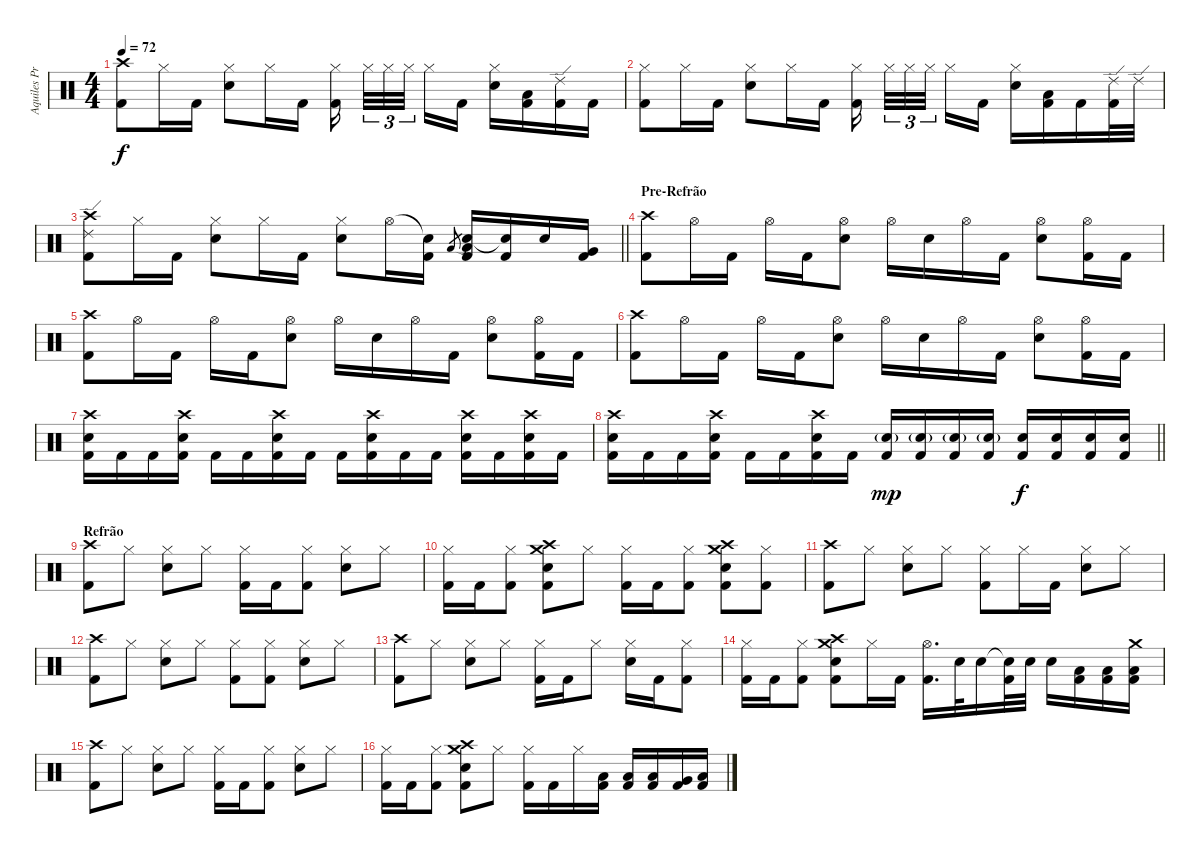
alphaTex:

\track ("Aquiles Priester" "Aquiles Pr") {instrument percussion}
\staff {score}
\articulation defaults
\ts (4 4)
\tempo 72
\clef neutral
\ks c
("Crash high (hit)" "Kick (hit) 2").8{dy f} "Hi-Hat (closed)".16 "Kick (hit) 2".16 ("Hi-Hat (closed)" "Electric Snare (hit)").8 "Hi-Hat (closed)".16 "Kick (hit) 2".16 ("Hi-Hat (closed)" "Kick (hit) 2").16 "Hi-Hat (closed)".32{tu (3 2)} "Hi-Hat (closed)".32{tu (3 2)} "Hi-Hat (closed)".32{tu (3 2)} "Hi-Hat (closed)".16 "Kick (hit) 2".16 ("Hi-Hat (closed)" "Electric Snare (hit)").16 ("Low Tom (hit)" "Kick (hit) 2").16 ("Ride (edge) 2" "Kick (hit) 2").16 "Kick (hit) 2".16 |
("Hi-Hat (closed)" "Kick (hit) 2").8 "Hi-Hat (closed)".16 "Kick (hit) 2".16 ("Hi-Hat (closed)" "Electric Snare (hit)").8 "Hi-Hat (closed)".16 "Kick (hit) 2".16 ("Hi-Hat (closed)" "Kick (hit) 2").16 "Hi-Hat (closed)".32{tu (3 2)} "Hi-Hat (closed)".32{tu (3 2)} "Hi-Hat (closed)".32{tu (3 2)} "Hi-Hat (closed)".16 "Kick (hit) 2".16 ("Hi-Hat (closed)" "Electric Snare (hit)").16 ("Low Tom (hit)" "Kick (hit) 2").16 "Kick (hit) 2".16 ("Ride (edge) 2" "Kick (hit) 2").32 "Ride (edge) 2".32 |
\barLineRight lightlight
("Crash high (hit)" "Ride (edge) 2" "Kick (hit) 2").8 "Hi-Hat (closed)".16 "Kick (hit) 2".16 ("Hi-Hat (closed)" "Electric Snare (hit)").8 "Hi-Hat (closed)".16 "Kick (hit) 2".16 ("Hi-Hat (closed)" "Electric Snare (hit)").8 "Hi-Hat (open)".16 ("Snare (hit)"{t} "Kick (hit) 2").16 "Low Tom (hit)".8{gr} ("Snare (hit)"{t} "Low Tom (hit)" "Kick (hit) 2").16 ("Snare (hit)"{t} "Kick (hit) 2").16 "Electric Snare (hit)".16 ("Very Low Tom (hit)" "Kick (hit) 2").16 |
\section ("" "Pre-Refrão")
("Crash high (hit)" "Kick (hit) 2").8 "Hi-Hat (open)".16 "Kick (hit) 2".16 "Hi-Hat (open)".16 "Kick (hit) 2".16 ("Hi-Hat (open)" "Electric Snare (hit)").8 "Hi-Hat (open)".16 "Electric Snare (hit)".16 "Hi-Hat (open)".16 "Kick (hit) 2".16 ("Hi-Hat (open)" "Electric Snare (hit)").8 ("Hi-Hat (open)" "Kick (hit) 2").16 "Kick (hit) 2".16 |
("Crash high (hit)" "Kick (hit) 2").8 "Hi-Hat (open)".16 "Kick (hit) 2".16 "Hi-Hat (open)".16 "Kick (hit) 2".16 ("Hi-Hat (open)" "Electric Snare (hit)").8 "Hi-Hat (open)".16 "Electric Snare (hit)".16 "Hi-Hat (open)".16 "Kick (hit) 2".16 ("Hi-Hat (open)" "Electric Snare (hit)").8 ("Hi-Hat (open)" "Kick (hit) 2").16 "Kick (hit) 2".16 |
("Crash high (hit)" "Kick (hit) 2").8 "Hi-Hat (open)".16 "Kick (hit) 2".16 "Hi-Hat (open)".16 "Kick (hit) 2".16 ("Hi-Hat (open)" "Electric Snare (hit)").8 "Hi-Hat (open)".16 "Electric Snare (hit)".16 "Hi-Hat (open)".16 "Kick (hit) 2".16 ("Hi-Hat (open)" "Electric Snare (hit)").8 ("Hi-Hat (open)" "Kick (hit) 2").16 "Kick (hit) 2".16 |
("Crash high (hit)" "Electric Snare (hit)" "Kick (hit) 2").16 "Kick (hit) 2".16 "Kick (hit) 2".16 ("Crash high (hit)" "Electric Snare (hit)" "Kick (hit) 2").16 "Kick (hit) 2".16 "Kick (hit) 2".16 ("Crash high (hit)" "Electric Snare (hit)" "Kick (hit) 2").16 "Kick (hit) 2".16 "Kick (hit) 2".16 ("Crash high (hit)" "Electric Snare (hit)" "Kick (hit) 2").16 "Kick (hit) 2".16 "Kick (hit) 2".16 ("Crash high (hit)" "Electric Snare (hit)" "Kick (hit) 2").16 "Kick (hit) 2".16 ("Crash high (hit)" "Electric Snare (hit)" "Kick (hit) 2").16 "Kick (hit) 2".16 |
\barLineRight lightlight
("Crash high (hit)" "Electric Snare (hit)" "Kick (hit) 2").16 "Kick (hit) 2".16 "Kick (hit) 2".16 ("Crash high (hit)" "Electric Snare (hit)" "Kick (hit) 2").16 "Kick (hit) 2".16 "Kick (hit) 2".16 ("Crash high (hit)" "Electric Snare (hit)" "Kick (hit) 2").16 "Kick (hit) 2".16 ("Electric Snare (hit)"{g} "Kick (hit) 2").16{dy mp} ("Electric Snare (hit)"{g} "Kick (hit) 2").16 ("Electric Snare (hit)"{g} "Kick (hit) 2").16 ("Electric Snare (hit)"{g} "Kick (hit) 2").16 ("Electric Snare (hit)" "Kick (hit) 2").16{dy f} ("Electric Snare (hit)" "Kick (hit) 2").16 ("Electric Snare (hit)" "Kick (hit) 2").16 ("Electric Snare (hit)" "Kick (hit) 2").16 |
\section ("" "Refrão")
("Crash high (hit)" "Kick (hit) 2").8 "Hi-Hat (closed)".8 ("Hi-Hat (closed)" "Electric Snare (hit)").8 "Hi-Hat (closed)".8 ("Hi-Hat (closed)" "Kick (hit) 2").16 "Kick (hit) 2".16 ("Hi-Hat (closed)" "Kick (hit) 2").8 ("Hi-Hat (closed)" "Electric Snare (hit)").8 "Hi-Hat (closed)".8 |
("Hi-Hat (closed)" "Kick (hit) 2").16 "Kick (hit) 2".16 ("Hi-Hat (closed)" "Kick (hit) 2").8 ("Crash high (hit)" "Crash medium (hit)" "Electric Snare (hit)" "Kick (hit) 2").8 "Hi-Hat (closed)".8 ("Hi-Hat (closed)" "Kick (hit) 2").16 "Kick (hit) 2".16 ("Hi-Hat (closed)" "Kick (hit) 2").8 ("Crash high (hit)" "Crash medium (hit)" "Electric Snare (hit)" "Kick (hit) 2").8 ("Hi-Hat (closed)" "Kick (hit) 2").8 |
("Crash high (hit)" "Kick (hit) 2").8 "Hi-Hat (closed)".8 ("Hi-Hat (closed)" "Electric Snare (hit)").8 "Hi-Hat (closed)".8 ("Hi-Hat (closed)" "Kick (hit) 2").8 "Hi-Hat (closed)".16 "Kick (hit) 2".16 ("Hi-Hat (closed)" "Electric Snare (hit)").8 "Hi-Hat (closed)".8 |
("Crash high (hit)" "Kick (hit) 2").8 "Hi-Hat (closed)".8 ("Hi-Hat (closed)" "Electric Snare (hit)").8 "Hi-Hat (closed)".8 ("Hi-Hat (closed)" "Kick (hit) 2").8 ("Hi-Hat (closed)" "Kick (hit) 2").8 ("Hi-Hat (closed)" "Electric Snare (hit)").8 "Hi-Hat (closed)".8 |
("Crash high (hit)" "Kick (hit) 2").8 "Hi-Hat (closed)".8 ("Hi-Hat (closed)" "Electric Snare (hit)").8 "Hi-Hat (closed)".8 ("Hi-Hat (closed)" "Kick (hit) 2").16 "Kick (hit) 2".16 "Hi-Hat (closed)".8 ("Hi-Hat (closed)" "Electric Snare (hit)").16 "Kick (hit) 2".16 ("Hi-Hat (closed)" "Kick (hit) 2").8 |
("Hi-Hat (closed)" "Kick (hit) 2").16 "Kick (hit) 2".16 ("Hi-Hat (closed)" "Kick (hit) 2").8 ("Crash high (hit)" "Crash medium (hit)" "Electric Snare (hit)" "Kick (hit) 2").8 "Hi-Hat (closed)".16 "Kick (hit) 2".16 ("Hi-Hat (open)" "Kick (hit) 2").16{d} "Electric Snare (hit)".32 "Electric Snare (hit)".16 ("Snare (hit)"{t} "Kick (hit) 2").32 "Electric Snare (hit)".32 "Electric Snare (hit)".16 ("Low Tom (hit)" "Kick (hit) 2").16 ("Low Tom (hit)" "Kick (hit) 2").16 ("Crash medium (hit)" "Low Tom (hit)" "Kick (hit) 2").16 |
("Crash high (hit)" "Kick (hit) 2").8 "Hi-Hat (closed)".8 ("Hi-Hat (closed)" "Electric Snare (hit)").8 "Hi-Hat (closed)".8 ("Hi-Hat (closed)" "Kick (hit) 2").16 "Kick (hit) 2".16 ("Hi-Hat (closed)" "Kick (hit) 2").8 ("Hi-Hat (closed)" "Electric Snare (hit)").8 "Hi-Hat (closed)".8 |
("Hi-Hat (closed)" "Kick (hit) 2").16 "Kick (hit) 2".16 ("Hi-Hat (closed)" "Kick (hit) 2").8 ("Crash high (hit)" "Crash medium (hit)" "Electric Snare (hit)" "Kick (hit) 2").8 "Hi-Hat (closed)".8 ("Hi-Hat (closed)" "Kick (hit) 2").16 "Kick (hit) 2".16 "Hi-Hat (closed)".16 ("Low Tom (hit)" "Kick (hit) 2").16 ("Low Tom (hit)" "Kick (hit) 2").16 ("Low Tom (hit)" "Kick (hit) 2").16 ("Very Low Tom (hit)" "Kick (hit) 2").16 ("Low Tom (hit)" "Kick (hit) 2").16
